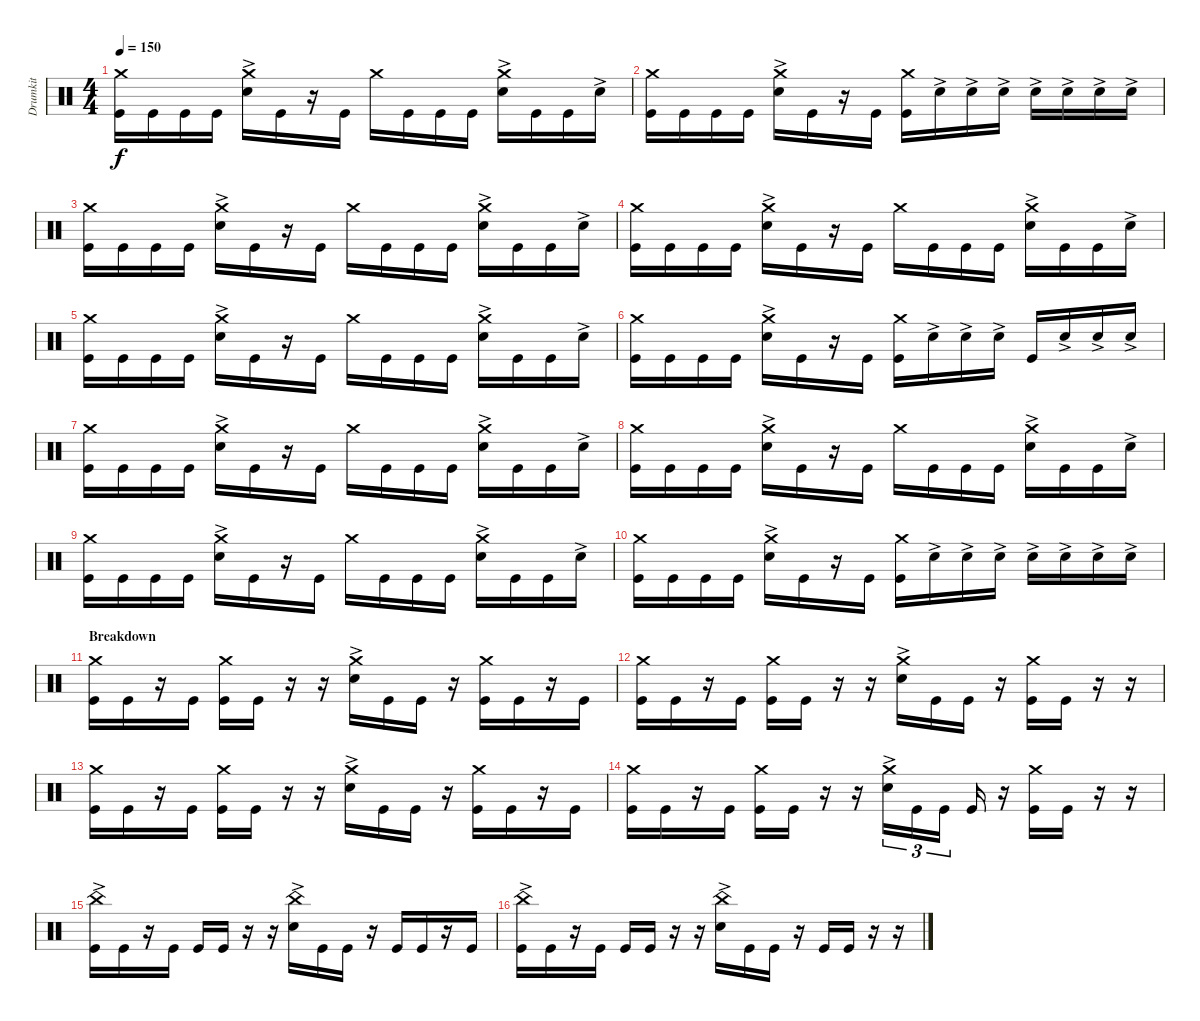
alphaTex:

\track ("Drumkit" "Drumkit") {instrument percussion}
\staff {score}
\articulation defaults
\ts (4 4)
\tempo 150
\clef neutral
\ks c
("Crash medium (hit)" "Kick (hit)").16{dy f} "Kick (hit)".16 "Kick (hit)".16 "Kick (hit)".16 ("Crash medium (hit)" "Snare (hit) 2"{ac}).16 "Kick (hit)".16 r.16 "Kick (hit)".16 "Crash medium (hit)".16 "Kick (hit)".16 "Kick (hit)".16 "Kick (hit)".16 ("Crash medium (hit)" "Snare (hit) 2"{ac}).16 "Kick (hit)".16 "Kick (hit)".16 "Snare (hit) 2"{ac}.16 |
("Crash medium (hit)" "Kick (hit)").16 "Kick (hit)".16 "Kick (hit)".16 "Kick (hit)".16 ("Crash medium (hit)" "Snare (hit) 2"{ac}).16 "Kick (hit)".16 r.16 "Kick (hit)".16 ("Kick (hit)" "Crash medium (hit)").16 "Snare (hit) 2"{ac}.16 "Snare (hit) 2"{ac}.16 "Snare (hit) 2"{ac}.16 "Snare (hit) 2"{ac}.16 "Snare (hit) 2"{ac}.16 "Snare (hit) 2"{ac}.16 "Snare (hit) 2"{ac}.16 |
("Crash medium (hit)" "Kick (hit)").16 "Kick (hit)".16 "Kick (hit)".16 "Kick (hit)".16 ("Crash medium (hit)" "Snare (hit) 2"{ac}).16 "Kick (hit)".16 r.16 "Kick (hit)".16 "Crash medium (hit)".16 "Kick (hit)".16 "Kick (hit)".16 "Kick (hit)".16 ("Crash medium (hit)" "Snare (hit) 2"{ac}).16 "Kick (hit)".16 "Kick (hit)".16 "Snare (hit) 2"{ac}.16 |
("Crash medium (hit)" "Kick (hit)").16 "Kick (hit)".16 "Kick (hit)".16 "Kick (hit)".16 ("Crash medium (hit)" "Snare (hit) 2"{ac}).16 "Kick (hit)".16 r.16 "Kick (hit)".16 "Crash medium (hit)".16 "Kick (hit)".16 "Kick (hit)".16 "Kick (hit)".16 ("Crash medium (hit)" "Snare (hit) 2"{ac}).16 "Kick (hit)".16 "Kick (hit)".16 "Snare (hit) 2"{ac}.16 |
("Crash medium (hit)" "Kick (hit)").16 "Kick (hit)".16 "Kick (hit)".16 "Kick (hit)".16 ("Crash medium (hit)" "Snare (hit) 2"{ac}).16 "Kick (hit)".16 r.16 "Kick (hit)".16 "Crash medium (hit)".16 "Kick (hit)".16 "Kick (hit)".16 "Kick (hit)".16 ("Crash medium (hit)" "Snare (hit) 2"{ac}).16 "Kick (hit)".16 "Kick (hit)".16 "Snare (hit) 2"{ac}.16 |
("Crash medium (hit)" "Kick (hit)").16 "Kick (hit)".16 "Kick (hit)".16 "Kick (hit)".16 ("Crash medium (hit)" "Snare (hit) 2"{ac}).16 "Kick (hit)".16 r.16 "Kick (hit)".16 ("Kick (hit)" "Crash medium (hit)").16 "Snare (hit) 2"{ac}.16 "Snare (hit) 2"{ac}.16 "Snare (hit) 2"{ac}.16 "Kick (hit)".16 "Snare (hit) 2"{ac}.16 "Snare (hit) 2"{ac}.16 "Snare (hit) 2"{ac}.16 |
("Crash medium (hit)" "Kick (hit)").16 "Kick (hit)".16 "Kick (hit)".16 "Kick (hit)".16 ("Crash medium (hit)" "Snare (hit) 2"{ac}).16 "Kick (hit)".16 r.16 "Kick (hit)".16 "Crash medium (hit)".16 "Kick (hit)".16 "Kick (hit)".16 "Kick (hit)".16 ("Crash medium (hit)" "Snare (hit) 2"{ac}).16 "Kick (hit)".16 "Kick (hit)".16 "Snare (hit) 2"{ac}.16 |
("Crash medium (hit)" "Kick (hit)").16 "Kick (hit)".16 "Kick (hit)".16 "Kick (hit)".16 ("Crash medium (hit)" "Snare (hit) 2"{ac}).16 "Kick (hit)".16 r.16 "Kick (hit)".16 "Crash medium (hit)".16 "Kick (hit)".16 "Kick (hit)".16 "Kick (hit)".16 ("Crash medium (hit)" "Snare (hit) 2"{ac}).16 "Kick (hit)".16 "Kick (hit)".16 "Snare (hit) 2"{ac}.16 |
("Crash medium (hit)" "Kick (hit)").16 "Kick (hit)".16 "Kick (hit)".16 "Kick (hit)".16 ("Crash medium (hit)" "Snare (hit) 2"{ac}).16 "Kick (hit)".16 r.16 "Kick (hit)".16 "Crash medium (hit)".16 "Kick (hit)".16 "Kick (hit)".16 "Kick (hit)".16 ("Crash medium (hit)" "Snare (hit) 2"{ac}).16 "Kick (hit)".16 "Kick (hit)".16 "Snare (hit) 2"{ac}.16 |
("Crash medium (hit)" "Kick (hit)").16 "Kick (hit)".16 "Kick (hit)".16 "Kick (hit)".16 ("Crash medium (hit)" "Snare (hit) 2"{ac}).16 "Kick (hit)".16 r.16 "Kick (hit)".16 ("Kick (hit)" "Crash medium (hit)").16 "Snare (hit) 2"{ac}.16 "Snare (hit) 2"{ac}.16 "Snare (hit) 2"{ac}.16 "Snare (hit) 2"{ac}.16 "Snare (hit) 2"{ac}.16 "Snare (hit) 2"{ac}.16 "Snare (hit) 2"{ac}.16 |
\section ("" "Breakdown")
("Crash medium (hit)" "Kick (hit)").16 "Kick (hit)".16 r.16 "Kick (hit)".16 ("Crash medium (hit)" "Kick (hit)").16 "Kick (hit)".16 r.16 r.16 ("Crash medium (hit)" "Snare (hit) 2"{ac}).16 "Kick (hit)".16 "Kick (hit)".16 r.16 ("Crash medium (hit)" "Kick (hit)").16 "Kick (hit)".16 r.16 "Kick (hit)".16 |
("Crash medium (hit)" "Kick (hit)").16 "Kick (hit)".16 r.16 "Kick (hit)".16 ("Crash medium (hit)" "Kick (hit)").16 "Kick (hit)".16 r.16 r.16 ("Crash medium (hit)" "Snare (hit) 2"{ac}).16 "Kick (hit)".16 "Kick (hit)".16 r.16 ("Crash medium (hit)" "Kick (hit)").16 "Kick (hit)".16 r.16 r.16 |
("Crash medium (hit)" "Kick (hit)").16 "Kick (hit)".16 r.16 "Kick (hit)".16 ("Crash medium (hit)" "Kick (hit)").16 "Kick (hit)".16 r.16 r.16 ("Crash medium (hit)" "Snare (hit) 2"{ac}).16 "Kick (hit)".16 "Kick (hit)".16 r.16 ("Crash medium (hit)" "Kick (hit)").16 "Kick (hit)".16 r.16 "Kick (hit)".16 |
("Crash medium (hit)" "Kick (hit)").16 "Kick (hit)".16 r.16 "Kick (hit)".16 ("Crash medium (hit)" "Kick (hit)").16 "Kick (hit)".16 r.16 r.16 ("Crash medium (hit)" "Snare (hit) 2"{ac}).16{tu (3 2)} "Kick (hit)".16{tu (3 2)} "Kick (hit)".16{tu (3 2)} "Kick (hit)".16 r.16 ("Kick (hit)" "Crash medium (hit)").16 "Kick (hit)".16 r.16 r.16 |
("Kick (hit)" "China (hit)"{ac}).16 "Kick (hit)".16 r.16 "Kick (hit)".16 "Kick (hit)".16 "Kick (hit)".16 r.16 r.16 ("Snare (hit) 2"{ac} "China (hit)"{ac}).16 "Kick (hit)".16 "Kick (hit)".16 r.16 "Kick (hit)".16 "Kick (hit)".16 r.16 "Kick (hit)".16 |
("Kick (hit)" "China (hit)"{ac}).16 "Kick (hit)".16 r.16 "Kick (hit)".16 "Kick (hit)".16 "Kick (hit)".16 r.16 r.16 ("Snare (hit) 2"{ac} "China (hit)"{ac}).16 "Kick (hit)".16 "Kick (hit)".16 r.16 "Kick (hit)".16 "Kick (hit)".16 r.16 r.16
